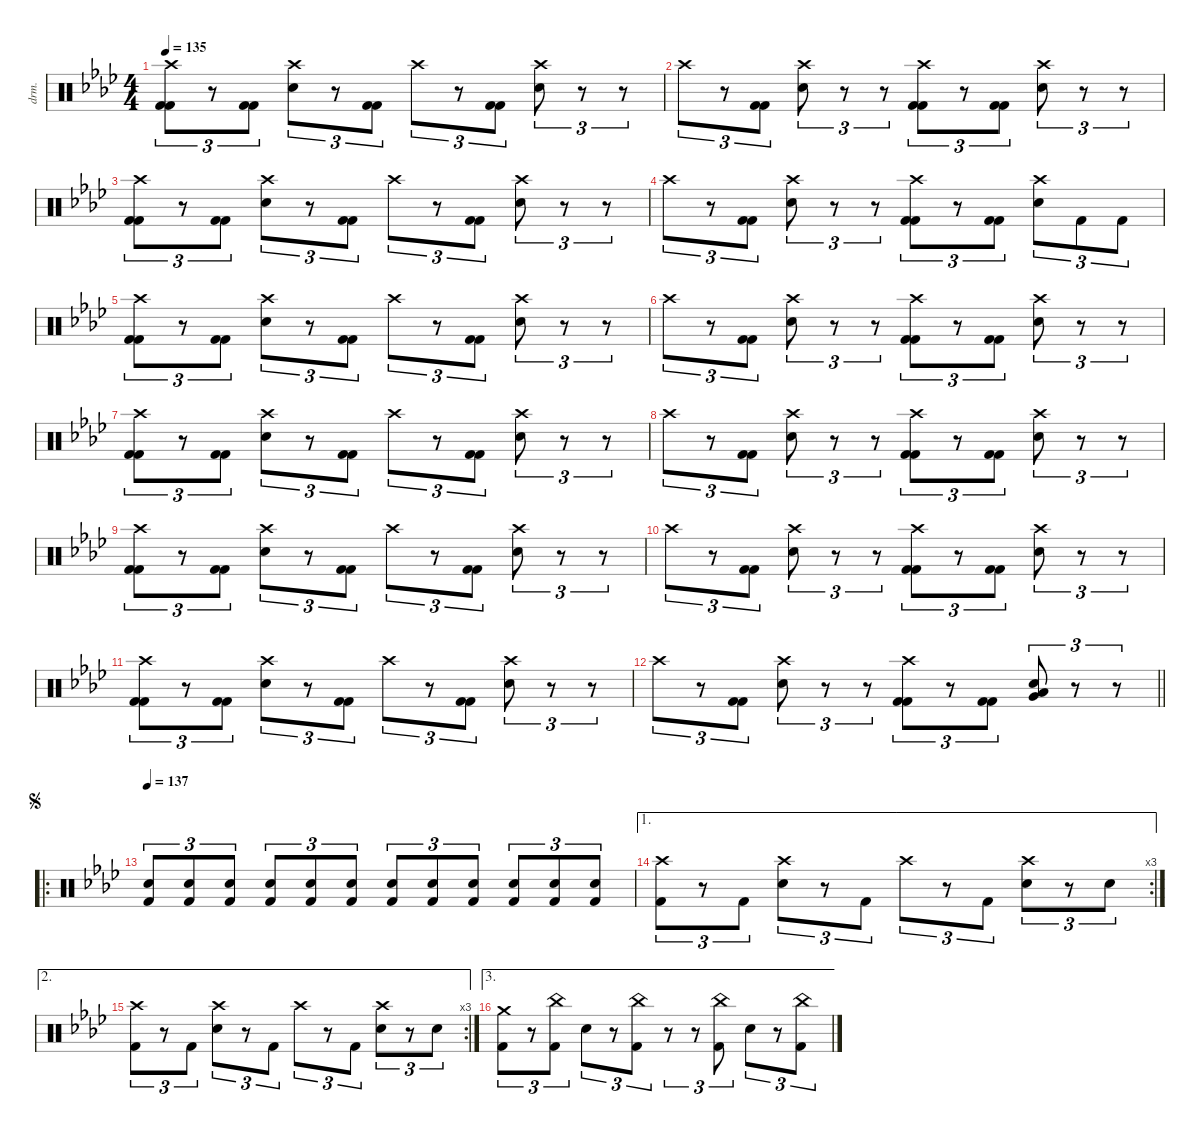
\defaultSystemsLayout 4
\hideDynamics
\bracketExtendMode nobrackets
\otherSystemsTrackNameOrientation horizontal
\track ("Drums" "drm.") {defaultSystemsLayout 4 instrument percussion}
\staff {score}
\articulation defaults
\ts (4 4)
\tempo 135
\clef neutral
\ks ab
("Crash high (hit)"{acc forcenatural} "Kick (hit) 2"{acc forcenatural} "Kick (hit) 2"{acc forcenatural}).8{tu (3 2) dy f beam Down} r.8{tu (3 2) beam Down} ("Kick (hit) 2"{acc forcenatural} "Kick (hit) 2"{acc forcenatural}).8{tu (3 2) beam Down} ("Crash high (hit)"{acc forcenatural} "Snare (hit) 2"{acc forcenatural}).8{tu (3 2) beam Down} r.8{tu (3 2) beam Down} ("Kick (hit) 2"{acc forcenatural} "Kick (hit) 2"{acc forcenatural}).8{tu (3 2) beam Down} "Crash high (hit)"{acc forcenatural}.8{tu (3 2) beam Down} r.8{tu (3 2) beam Down} ("Kick (hit) 2"{acc forcenatural} "Kick (hit) 2"{acc forcenatural}).8{tu (3 2) beam Down} ("Crash high (hit)"{acc forcenatural} "Snare (hit) 2"{acc forcenatural}).8{tu (3 2) beam Down} r.8{tu (3 2) beam Down} r.8{tu (3 2) beam Down} |
"Crash high (hit)"{acc forcenatural}.8{tu (3 2) beam Down} r.8{tu (3 2) beam Down} ("Kick (hit) 2"{acc forcenatural} "Kick (hit) 2"{acc forcenatural}).8{tu (3 2) beam Down} ("Crash high (hit)"{acc forcenatural} "Snare (hit) 2"{acc forcenatural}).8{tu (3 2) beam Down} r.8{tu (3 2) beam Down} r.8{tu (3 2) beam Down} ("Crash high (hit)"{acc forcenatural} "Kick (hit) 2"{acc forcenatural} "Kick (hit) 2"{acc forcenatural}).8{tu (3 2) beam Down} r.8{tu (3 2) beam Down} ("Kick (hit) 2"{acc forcenatural} "Kick (hit) 2"{acc forcenatural}).8{tu (3 2) beam Down} ("Crash high (hit)"{acc forcenatural} "Snare (hit) 2"{acc forcenatural}).8{tu (3 2) beam Down} r.8{tu (3 2) beam Down} r.8{tu (3 2) beam Down} |
("Crash high (hit)"{acc forcenatural} "Kick (hit) 2"{acc forcenatural} "Kick (hit) 2"{acc forcenatural}).8{tu (3 2) beam Down} r.8{tu (3 2) beam Down} ("Kick (hit) 2"{acc forcenatural} "Kick (hit) 2"{acc forcenatural}).8{tu (3 2) beam Down} ("Crash high (hit)"{acc forcenatural} "Snare (hit) 2"{acc forcenatural}).8{tu (3 2) beam Down} r.8{tu (3 2) beam Down} ("Kick (hit) 2"{acc forcenatural} "Kick (hit) 2"{acc forcenatural}).8{tu (3 2) beam Down} "Crash high (hit)"{acc forcenatural}.8{tu (3 2) beam Down} r.8{tu (3 2) beam Down} ("Kick (hit) 2"{acc forcenatural} "Kick (hit) 2"{acc forcenatural}).8{tu (3 2) beam Down} ("Crash high (hit)"{acc forcenatural} "Snare (hit) 2"{acc forcenatural}).8{tu (3 2) beam Down} r.8{tu (3 2) beam Down} r.8{tu (3 2) beam Down} |
"Crash high (hit)"{acc forcenatural}.8{tu (3 2) beam Down} r.8{tu (3 2) beam Down} ("Kick (hit) 2"{acc forcenatural} "Kick (hit) 2"{acc forcenatural}).8{tu (3 2) beam Down} ("Crash high (hit)"{acc forcenatural} "Snare (hit) 2"{acc forcenatural}).8{tu (3 2) beam Down} r.8{tu (3 2) beam Down} r.8{tu (3 2) beam Down} ("Crash high (hit)"{acc forcenatural} "Kick (hit) 2"{acc forcenatural} "Kick (hit) 2"{acc forcenatural}).8{tu (3 2) beam Down} r.8{tu (3 2) beam Down} ("Kick (hit) 2"{acc forcenatural} "Kick (hit) 2"{acc forcenatural}).8{tu (3 2) beam Down} ("Crash high (hit)"{acc forcenatural} "Snare (hit) 2"{acc forcenatural}).8{tu (3 2) beam Down} "Kick (hit) 2"{acc forcenatural}.8{tu (3 2) beam Down} "Kick (hit) 2"{acc forcenatural}.8{tu (3 2) beam Down} |
("Crash high (hit)"{acc forcenatural} "Kick (hit) 2"{acc forcenatural} "Kick (hit) 2"{acc forcenatural}).8{tu (3 2) beam Down} r.8{tu (3 2) beam Down} ("Kick (hit) 2"{acc forcenatural} "Kick (hit) 2"{acc forcenatural}).8{tu (3 2) beam Down} ("Crash high (hit)"{acc forcenatural} "Snare (hit) 2"{acc forcenatural}).8{tu (3 2) beam Down} r.8{tu (3 2) beam Down} ("Kick (hit) 2"{acc forcenatural} "Kick (hit) 2"{acc forcenatural}).8{tu (3 2) beam Down} "Crash high (hit)"{acc forcenatural}.8{tu (3 2) beam Down} r.8{tu (3 2) beam Down} ("Kick (hit) 2"{acc forcenatural} "Kick (hit) 2"{acc forcenatural}).8{tu (3 2) beam Down} ("Crash high (hit)"{acc forcenatural} "Snare (hit) 2"{acc forcenatural}).8{tu (3 2) beam Down} r.8{tu (3 2) beam Down} r.8{tu (3 2) beam Down} |
"Crash high (hit)"{acc forcenatural}.8{tu (3 2) beam Down} r.8{tu (3 2) beam Down} ("Kick (hit) 2"{acc forcenatural} "Kick (hit) 2"{acc forcenatural}).8{tu (3 2) beam Down} ("Crash high (hit)"{acc forcenatural} "Snare (hit) 2"{acc forcenatural}).8{tu (3 2) beam Down} r.8{tu (3 2) beam Down} r.8{tu (3 2) beam Down} ("Crash high (hit)"{acc forcenatural} "Kick (hit) 2"{acc forcenatural} "Kick (hit) 2"{acc forcenatural}).8{tu (3 2) beam Down} r.8{tu (3 2) beam Down} ("Kick (hit) 2"{acc forcenatural} "Kick (hit) 2"{acc forcenatural}).8{tu (3 2) beam Down} ("Crash high (hit)"{acc forcenatural} "Snare (hit) 2"{acc forcenatural}).8{tu (3 2) beam Down} r.8{tu (3 2) beam Down} r.8{tu (3 2) beam Down} |
("Crash high (hit)"{acc forcenatural} "Kick (hit) 2"{acc forcenatural} "Kick (hit) 2"{acc forcenatural}).8{tu (3 2) beam Down} r.8{tu (3 2) beam Down} ("Kick (hit) 2"{acc forcenatural} "Kick (hit) 2"{acc forcenatural}).8{tu (3 2) beam Down} ("Crash high (hit)"{acc forcenatural} "Snare (hit) 2"{acc forcenatural}).8{tu (3 2) beam Down} r.8{tu (3 2) beam Down} ("Kick (hit) 2"{acc forcenatural} "Kick (hit) 2"{acc forcenatural}).8{tu (3 2) beam Down} "Crash high (hit)"{acc forcenatural}.8{tu (3 2) beam Down} r.8{tu (3 2) beam Down} ("Kick (hit) 2"{acc forcenatural} "Kick (hit) 2"{acc forcenatural}).8{tu (3 2) beam Down} ("Crash high (hit)"{acc forcenatural} "Snare (hit) 2"{acc forcenatural}).8{tu (3 2) beam Down} r.8{tu (3 2) beam Down} r.8{tu (3 2) beam Down} |
"Crash high (hit)"{acc forcenatural}.8{tu (3 2) beam Down} r.8{tu (3 2) beam Down} ("Kick (hit) 2"{acc forcenatural} "Kick (hit) 2"{acc forcenatural}).8{tu (3 2) beam Down} ("Crash high (hit)"{acc forcenatural} "Snare (hit) 2"{acc forcenatural}).8{tu (3 2) beam Down} r.8{tu (3 2) beam Down} r.8{tu (3 2) beam Down} ("Crash high (hit)"{acc forcenatural} "Kick (hit) 2"{acc forcenatural} "Kick (hit) 2"{acc forcenatural}).8{tu (3 2) beam Down} r.8{tu (3 2) beam Down} ("Kick (hit) 2"{acc forcenatural} "Kick (hit) 2"{acc forcenatural}).8{tu (3 2) beam Down} ("Crash high (hit)"{acc forcenatural} "Snare (hit) 2"{acc forcenatural}).8{tu (3 2) beam Down} r.8{tu (3 2) beam Down} r.8{tu (3 2) beam Down} |
("Crash high (hit)"{acc forcenatural} "Kick (hit) 2"{acc forcenatural} "Kick (hit) 2"{acc forcenatural}).8{tu (3 2) beam Down} r.8{tu (3 2) beam Down} ("Kick (hit) 2"{acc forcenatural} "Kick (hit) 2"{acc forcenatural}).8{tu (3 2) beam Down} ("Crash high (hit)"{acc forcenatural} "Snare (hit) 2"{acc forcenatural}).8{tu (3 2) beam Down} r.8{tu (3 2) beam Down} ("Kick (hit) 2"{acc forcenatural} "Kick (hit) 2"{acc forcenatural}).8{tu (3 2) beam Down} "Crash high (hit)"{acc forcenatural}.8{tu (3 2) beam Down} r.8{tu (3 2) beam Down} ("Kick (hit) 2"{acc forcenatural} "Kick (hit) 2"{acc forcenatural}).8{tu (3 2) beam Down} ("Crash high (hit)"{acc forcenatural} "Snare (hit) 2"{acc forcenatural}).8{tu (3 2) beam Down} r.8{tu (3 2) beam Down} r.8{tu (3 2) beam Down} |
"Crash high (hit)"{acc forcenatural}.8{tu (3 2) beam Down} r.8{tu (3 2) beam Down} ("Kick (hit) 2"{acc forcenatural} "Kick (hit) 2"{acc forcenatural}).8{tu (3 2) beam Down} ("Crash high (hit)"{acc forcenatural} "Snare (hit) 2"{acc forcenatural}).8{tu (3 2) beam Down} r.8{tu (3 2) beam Down} r.8{tu (3 2) beam Down} ("Crash high (hit)"{acc forcenatural} "Kick (hit) 2"{acc forcenatural} "Kick (hit) 2"{acc forcenatural}).8{tu (3 2) beam Down} r.8{tu (3 2) beam Down} ("Kick (hit) 2"{acc forcenatural} "Kick (hit) 2"{acc forcenatural}).8{tu (3 2) beam Down} ("Crash high (hit)"{acc forcenatural} "Snare (hit) 2"{acc forcenatural}).8{tu (3 2) beam Down} r.8{tu (3 2) beam Down} r.8{tu (3 2) beam Down} |
("Crash high (hit)"{acc forcenatural} "Kick (hit) 2"{acc forcenatural} "Kick (hit) 2"{acc forcenatural}).8{tu (3 2) beam Down} r.8{tu (3 2) beam Down} ("Kick (hit) 2"{acc forcenatural} "Kick (hit) 2"{acc forcenatural}).8{tu (3 2) beam Down} ("Crash high (hit)"{acc forcenatural} "Snare (hit) 2"{acc forcenatural}).8{tu (3 2) beam Down} r.8{tu (3 2) beam Down} ("Kick (hit) 2"{acc forcenatural} "Kick (hit) 2"{acc forcenatural}).8{tu (3 2) beam Down} "Crash high (hit)"{acc forcenatural}.8{tu (3 2) beam Down} r.8{tu (3 2) beam Down} ("Kick (hit) 2"{acc forcenatural} "Kick (hit) 2"{acc forcenatural}).8{tu (3 2) beam Down} ("Crash high (hit)"{acc forcenatural} "Snare (hit) 2"{acc forcenatural}).8{tu (3 2) beam Down} r.8{tu (3 2) beam Down} r.8{tu (3 2) beam Down} |
\barLineRight lightlight "Crash high (hit)"{acc forcenatural}.8{tu (3 2) beam Down}
r.8{tu (3 2) beam Down} ("Kick (hit) 2"{acc forcenatural} "Kick (hit) 2"{acc forcenatural}).8{tu (3 2) beam Down} ("Crash high (hit)"{acc forcenatural} "Snare (hit) 2"{acc forcenatural}).8{tu (3 2) beam Down} r.8{tu (3 2) beam Down} r.8{tu (3 2) beam Down} ("Crash high (hit)"{acc forcenatural} "Kick (hit) 2"{acc forcenatural} "Kick (hit) 2"{acc forcenatural}).8{tu (3 2) beam Down} r.8{tu (3 2) beam Down} ("Kick (hit) 2"{acc forcenatural} "Kick (hit) 2"{acc forcenatural}).8{tu (3 2) beam Down} ("Snare (hit) 2"{acc forcenatural} "Very Low Tom (hit)"{acc forcenatural} "Low Floor Tom (hit)"{acc forcenatural}).8{tu (3 2) beam Up} r.8{tu (3 2) beam Up} r.8{tu (3 2) beam Up} |
\ro
\jump segno
\tempo 137
("Snare (hit) 2"{acc forcenatural} "Kick (hit) 2"{acc forcenatural}).8{tu (3 2) beam Up} ("Snare (hit) 2"{acc forcenatural} "Kick (hit) 2"{acc forcenatural}).8{tu (3 2) beam Up} ("Snare (hit) 2"{acc forcenatural} "Kick (hit) 2"{acc forcenatural}).8{tu (3 2) beam Up} ("Snare (hit) 2"{acc forcenatural} "Kick (hit) 2"{acc forcenatural}).8{tu (3 2) beam Up} ("Snare (hit) 2"{acc forcenatural} "Kick (hit) 2"{acc forcenatural}).8{tu (3 2) beam Up} ("Snare (hit) 2"{acc forcenatural} "Kick (hit) 2"{acc forcenatural}).8{tu (3 2) beam Up} ("Snare (hit) 2"{acc forcenatural} "Kick (hit) 2"{acc forcenatural}).8{tu (3 2) beam Up} ("Snare (hit) 2"{acc forcenatural} "Kick (hit) 2"{acc forcenatural}).8{tu (3 2) beam Up} ("Snare (hit) 2"{acc forcenatural} "Kick (hit) 2"{acc forcenatural}).8{tu (3 2) beam Up} ("Snare (hit) 2"{acc forcenatural} "Kick (hit) 2"{acc forcenatural}).8{tu (3 2) beam Up} ("Snare (hit) 2"{acc forcenatural} "Kick (hit) 2"{acc forcenatural}).8{tu (3 2) beam Up} ("Snare (hit) 2"{acc forcenatural} "Kick (hit) 2"{acc forcenatural}).8{tu (3 2) beam Up} |
\ae 1
\rc 3
("Crash high (hit)"{acc forcenatural} "Kick (hit) 2"{acc forcenatural}).8{tu (3 2) beam Down} r.8{tu (3 2) beam Down} "Kick (hit) 2"{acc forcenatural}.8{tu (3 2) beam Down} ("Crash high (hit)"{acc forcenatural} "Snare (hit) 2"{acc forcenatural}).8{tu (3 2) beam Down} r.8{tu (3 2) beam Down} "Kick (hit) 2"{acc forcenatural}.8{tu (3 2) beam Down} "Crash high (hit)"{acc forcenatural}.8{tu (3 2) beam Down} r.8{tu (3 2) beam Down} "Kick (hit) 2"{acc forcenatural}.8{tu (3 2) beam Down} ("Crash high (hit)"{acc forcenatural} "Snare (hit) 2"{acc forcenatural}).8{tu (3 2) beam Down} r.8{tu (3 2) beam Down} "Snare (hit) 2"{acc forcenatural}.8{tu (3 2) beam Down} |
\ae 2
\rc 3
("Crash high (hit)"{acc forcenatural} "Kick (hit) 2"{acc forcenatural}).8{tu (3 2) beam Down} r.8{tu (3 2) beam Down} "Kick (hit) 2"{acc forcenatural}.8{tu (3 2) beam Down} ("Crash high (hit)"{acc forcenatural} "Snare (hit) 2"{acc forcenatural}).8{tu (3 2) beam Down} r.8{tu (3 2) beam Down} "Kick (hit) 2"{acc forcenatural}.8{tu (3 2) beam Down} "Crash high (hit)"{acc forcenatural}.8{tu (3 2) beam Down} r.8{tu (3 2) beam Down} "Kick (hit) 2"{acc forcenatural}.8{tu (3 2) beam Down} ("Crash high (hit)"{acc forcenatural} "Snare (hit) 2"{acc forcenatural}).8{tu (3 2) beam Down} r.8{tu (3 2) beam Down} "Snare (hit) 2"{acc forcenatural}.8{tu (3 2) beam Down} |
\ae 3
("Crash medium (hit)"{acc forcenatural} "Kick (hit) 2"{acc forcenatural}).8{tu (3 2) beam Down} r.8{tu (3 2) beam Down} ("China (hit)"{acc forcenatural} "Kick (hit) 2"{acc forcenatural}).8{tu (3 2) beam Down} "Snare (hit) 2"{acc forcenatural}.8{tu (3 2) beam Down} r.8{tu (3 2) beam Down} ("China (hit)"{acc forcenatural} "Kick (hit) 2"{acc forcenatural}).8{tu (3 2) beam Down} r.8{tu (3 2) beam Down} r.8{tu (3 2) beam Down} ("China (hit)"{acc forcenatural} "Kick (hit) 2"{acc forcenatural}).8{tu (3 2) beam Down} "Snare (hit) 2"{acc forcenatural}.8{tu (3 2) beam Down} r.8{tu (3 2) beam Down} ("China (hit)"{acc forcenatural} "Kick (hit) 2"{acc forcenatural}).8{tu (3 2) beam Down}
